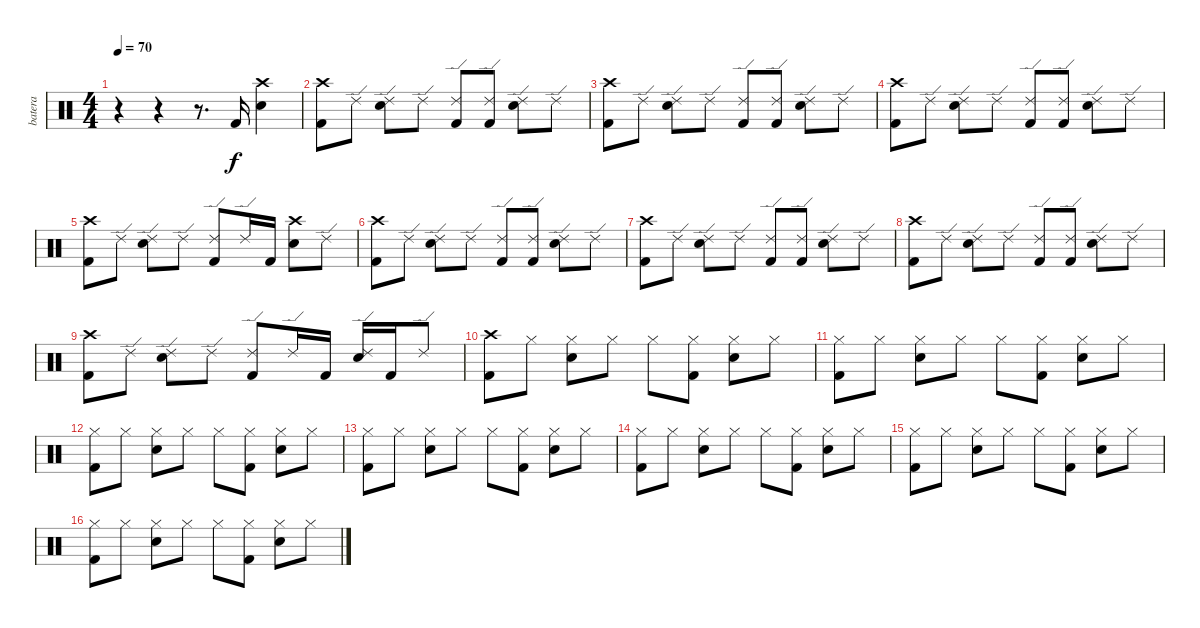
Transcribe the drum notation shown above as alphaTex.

\track ("batera" "batera") {instrument percussion}
\staff {score}
\articulation defaults
\ts (4 4)
\tempo 70
\clef neutral
\ks c
r.4{dy f} r.4 r.8{d} "Kick (hit) 2".16 ("Crash high (hit)" "Electric Snare (hit)").4 |
("Crash high (hit)" "Kick (hit) 2").8 "Ride (edge) 2".8 ("Electric Snare (hit)" "Ride (edge) 2").8 "Ride (edge) 2".8 ("Kick (hit) 2" "Ride (edge) 2").8 ("Kick (hit) 2" "Ride (edge) 2").8 ("Electric Snare (hit)" "Ride (edge) 2").8 "Ride (edge) 2".8 |
("Crash high (hit)" "Kick (hit) 2").8 "Ride (edge) 2".8 ("Electric Snare (hit)" "Ride (edge) 2").8 "Ride (edge) 2".8 ("Kick (hit) 2" "Ride (edge) 2").8 ("Kick (hit) 2" "Ride (edge) 2").8 ("Electric Snare (hit)" "Ride (edge) 2").8 "Ride (edge) 2".8 |
("Crash high (hit)" "Kick (hit) 2").8 "Ride (edge) 2".8 ("Electric Snare (hit)" "Ride (edge) 2").8 "Ride (edge) 2".8 ("Kick (hit) 2" "Ride (edge) 2").8 ("Kick (hit) 2" "Ride (edge) 2").8 ("Electric Snare (hit)" "Ride (edge) 2").8 "Ride (edge) 2".8 |
("Crash high (hit)" "Kick (hit) 2").8 "Ride (edge) 2".8 ("Electric Snare (hit)" "Ride (edge) 2").8 "Ride (edge) 2".8 ("Kick (hit) 2" "Ride (edge) 2").8 "Ride (edge) 2".16 "Kick (hit) 2".16 ("Crash high (hit)" "Electric Snare (hit)").8 "Ride (edge) 2".8 |
("Crash high (hit)" "Kick (hit) 2").8 "Ride (edge) 2".8 ("Electric Snare (hit)" "Ride (edge) 2").8 "Ride (edge) 2".8 ("Kick (hit) 2" "Ride (edge) 2").8 ("Kick (hit) 2" "Ride (edge) 2").8 ("Electric Snare (hit)" "Ride (edge) 2").8 "Ride (edge) 2".8 |
("Crash high (hit)" "Kick (hit) 2").8 "Ride (edge) 2".8 ("Electric Snare (hit)" "Ride (edge) 2").8 "Ride (edge) 2".8 ("Kick (hit) 2" "Ride (edge) 2").8 ("Kick (hit) 2" "Ride (edge) 2").8 ("Electric Snare (hit)" "Ride (edge) 2").8 "Ride (edge) 2".8 |
("Crash high (hit)" "Kick (hit) 2").8 "Ride (edge) 2".8 ("Electric Snare (hit)" "Ride (edge) 2").8 "Ride (edge) 2".8 ("Kick (hit) 2" "Ride (edge) 2").8 ("Kick (hit) 2" "Ride (edge) 2").8 ("Electric Snare (hit)" "Ride (edge) 2").8 "Ride (edge) 2".8 |
("Crash high (hit)" "Kick (hit) 2").8 "Ride (edge) 2".8 ("Electric Snare (hit)" "Ride (edge) 2").8 "Ride (edge) 2".8 ("Kick (hit) 2" "Ride (edge) 2").8 "Ride (edge) 2".16 "Kick (hit) 2".16 ("Electric Snare (hit)" "Ride (edge) 2").16 "Kick (hit) 2".16 "Ride (edge) 2".8 |
("Crash high (hit)" "Kick (hit) 2").8 "Hi-Hat (closed)".8 ("Electric Snare (hit)" "Hi-Hat (closed)").8 "Hi-Hat (closed)".8 "Hi-Hat (closed)".8 ("Kick (hit) 2" "Hi-Hat (closed)").8 ("Electric Snare (hit)" "Hi-Hat (closed)").8 "Hi-Hat (closed)".8 |
("Kick (hit) 2" "Hi-Hat (closed)").8 "Hi-Hat (closed)".8 ("Electric Snare (hit)" "Hi-Hat (closed)").8 "Hi-Hat (closed)".8 "Hi-Hat (closed)".8 ("Kick (hit) 2" "Hi-Hat (closed)").8 ("Electric Snare (hit)" "Hi-Hat (closed)").8 "Hi-Hat (closed)".8 |
("Kick (hit) 2" "Hi-Hat (closed)").8 "Hi-Hat (closed)".8 ("Electric Snare (hit)" "Hi-Hat (closed)").8 "Hi-Hat (closed)".8 "Hi-Hat (closed)".8 ("Kick (hit) 2" "Hi-Hat (closed)").8 ("Electric Snare (hit)" "Hi-Hat (closed)").8 "Hi-Hat (closed)".8 |
("Kick (hit) 2" "Hi-Hat (closed)").8 "Hi-Hat (closed)".8 ("Electric Snare (hit)" "Hi-Hat (closed)").8 "Hi-Hat (closed)".8 "Hi-Hat (closed)".8 ("Kick (hit) 2" "Hi-Hat (closed)").8 ("Electric Snare (hit)" "Hi-Hat (closed)").8 "Hi-Hat (closed)".8 |
("Kick (hit) 2" "Hi-Hat (closed)").8 "Hi-Hat (closed)".8 ("Electric Snare (hit)" "Hi-Hat (closed)").8 "Hi-Hat (closed)".8 "Hi-Hat (closed)".8 ("Kick (hit) 2" "Hi-Hat (closed)").8 ("Electric Snare (hit)" "Hi-Hat (closed)").8 "Hi-Hat (closed)".8 |
("Kick (hit) 2" "Hi-Hat (closed)").8 "Hi-Hat (closed)".8 ("Electric Snare (hit)" "Hi-Hat (closed)").8 "Hi-Hat (closed)".8 "Hi-Hat (closed)".8 ("Kick (hit) 2" "Hi-Hat (closed)").8 ("Electric Snare (hit)" "Hi-Hat (closed)").8 "Hi-Hat (closed)".8 |
("Kick (hit) 2" "Hi-Hat (closed)").8 "Hi-Hat (closed)".8 ("Electric Snare (hit)" "Hi-Hat (closed)").8 "Hi-Hat (closed)".8 "Hi-Hat (closed)".8 ("Kick (hit) 2" "Hi-Hat (closed)").8 ("Electric Snare (hit)" "Hi-Hat (closed)").8 "Hi-Hat (closed)".8
